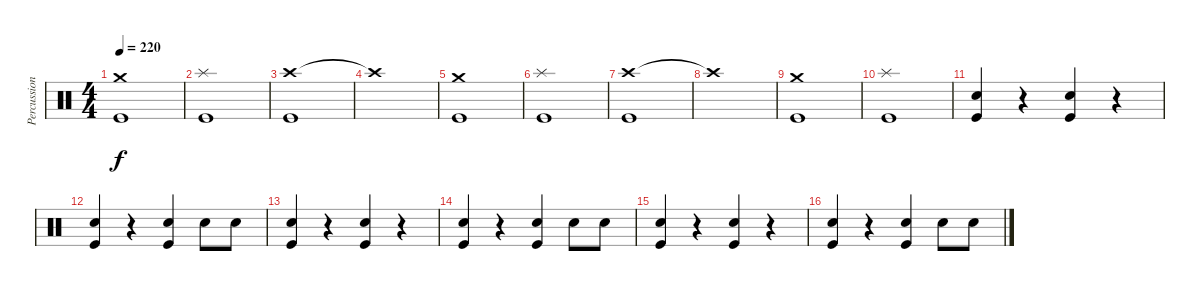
\track ("Percussion" "Percussion") {instrument percussion}
\staff {score}
\articulation defaults
\ts (4 4)
\tempo 220
\clef neutral
\ks c
("Crash medium (hit)" "Kick (hit)").1{dy f} |
("Splash (hit)" "Kick (hit)").1 |
("Crash high (hit)" "Kick (hit)").1 |
"Crash high (hit)"{t}.1 |
("Crash medium (hit)" "Kick (hit)").1 |
("Splash (hit)" "Kick (hit)").1 |
("Crash high (hit)" "Kick (hit)").1 |
"Crash high (hit)"{t}.1 |
("Crash medium (hit)" "Kick (hit)").1 |
("Splash (hit)" "Kick (hit)").1 |
("Snare (hit) 2" "Kick (hit)").4 r.4 ("Snare (hit) 2" "Kick (hit)").4 r.4 |
("Snare (hit) 2" "Kick (hit)").4 r.4 ("Snare (hit) 2" "Kick (hit)").4 "Snare (hit) 2".8 "Snare (hit) 2".8 |
("Snare (hit) 2" "Kick (hit)").4 r.4 ("Snare (hit) 2" "Kick (hit)").4 r.4 |
("Snare (hit) 2" "Kick (hit)").4 r.4 ("Snare (hit) 2" "Kick (hit)").4 "Snare (hit) 2".8 "Snare (hit) 2".8 |
("Snare (hit) 2" "Kick (hit)").4 r.4 ("Snare (hit) 2" "Kick (hit)").4 r.4 |
("Snare (hit) 2" "Kick (hit)").4 r.4 ("Snare (hit) 2" "Kick (hit)").4 "Snare (hit) 2".8 "Snare (hit) 2".8
